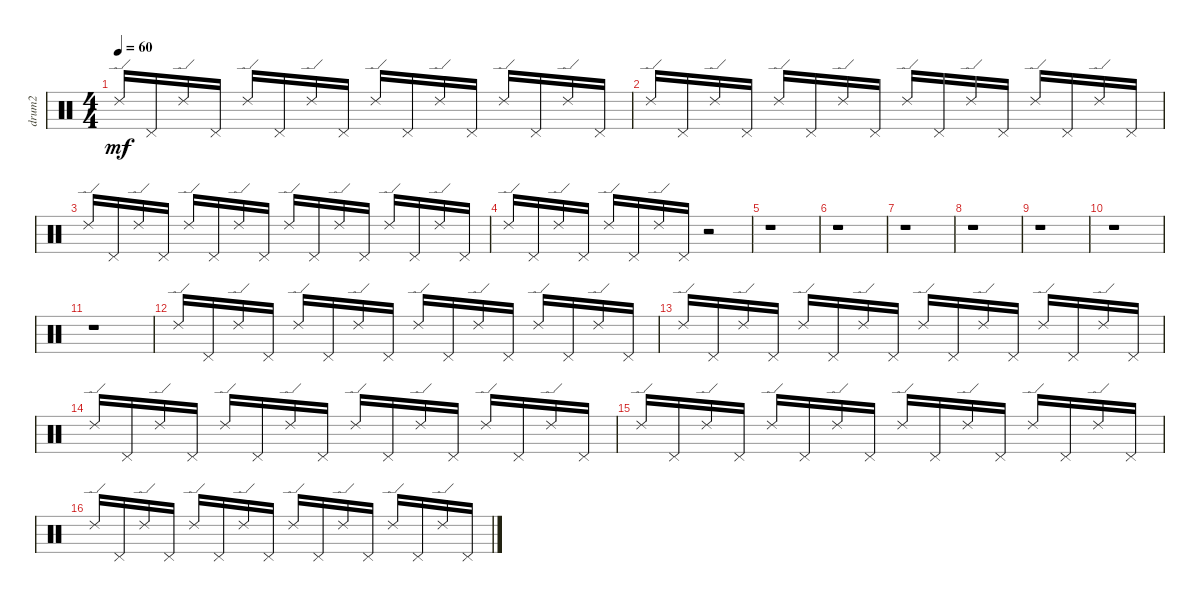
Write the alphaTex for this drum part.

\track ("drum2" "drum2") {instrument percussion}
\staff {score}
\articulation defaults
\ts (4 4)
\tempo 60
\clef neutral
\ks c "Ride (edge) 2".16{dy mf} "Pedal Hi-Hat (hit)".16 "Ride (edge) 2".16 "Pedal Hi-Hat (hit)".16 "Ride (edge) 2".16 "Pedal Hi-Hat (hit)".16 "Ride (edge) 2".16 "Pedal Hi-Hat (hit)".16 "Ride (edge) 2".16 "Pedal Hi-Hat (hit)".16 "Ride (edge) 2".16 "Pedal Hi-Hat (hit)".16 "Ride (edge) 2".16 "Pedal Hi-Hat (hit)".16 "Ride (edge) 2".16 "Pedal Hi-Hat (hit)".16
|
"Ride (edge) 2".16 "Pedal Hi-Hat (hit)".16 "Ride (edge) 2".16 "Pedal Hi-Hat (hit)".16 "Ride (edge) 2".16 "Pedal Hi-Hat (hit)".16 "Ride (edge) 2".16 "Pedal Hi-Hat (hit)".16 "Ride (edge) 2".16 "Pedal Hi-Hat (hit)".16 "Ride (edge) 2".16 "Pedal Hi-Hat (hit)".16 "Ride (edge) 2".16 "Pedal Hi-Hat (hit)".16 "Ride (edge) 2".16 "Pedal Hi-Hat (hit)".16 |
"Ride (edge) 2".16 "Pedal Hi-Hat (hit)".16 "Ride (edge) 2".16 "Pedal Hi-Hat (hit)".16 "Ride (edge) 2".16 "Pedal Hi-Hat (hit)".16 "Ride (edge) 2".16 "Pedal Hi-Hat (hit)".16 "Ride (edge) 2".16 "Pedal Hi-Hat (hit)".16 "Ride (edge) 2".16 "Pedal Hi-Hat (hit)".16 "Ride (edge) 2".16 "Pedal Hi-Hat (hit)".16 "Ride (edge) 2".16 "Pedal Hi-Hat (hit)".16 |
"Ride (edge) 2".16 "Pedal Hi-Hat (hit)".16 "Ride (edge) 2".16 "Pedal Hi-Hat (hit)".16 "Ride (edge) 2".16 "Pedal Hi-Hat (hit)".16 "Ride (edge) 2".16 "Pedal Hi-Hat (hit)".16 r.2 |
r.1 |
r.1 |
r.1 |
r.1 |
r.1 |
r.1 |
r.1 |
"Ride (edge) 2".16 "Pedal Hi-Hat (hit)".16 "Ride (edge) 2".16 "Pedal Hi-Hat (hit)".16 "Ride (edge) 2".16 "Pedal Hi-Hat (hit)".16 "Ride (edge) 2".16 "Pedal Hi-Hat (hit)".16 "Ride (edge) 2".16 "Pedal Hi-Hat (hit)".16 "Ride (edge) 2".16 "Pedal Hi-Hat (hit)".16 "Ride (edge) 2".16 "Pedal Hi-Hat (hit)".16 "Ride (edge) 2".16 "Pedal Hi-Hat (hit)".16 |
"Ride (edge) 2".16 "Pedal Hi-Hat (hit)".16 "Ride (edge) 2".16 "Pedal Hi-Hat (hit)".16 "Ride (edge) 2".16 "Pedal Hi-Hat (hit)".16 "Ride (edge) 2".16 "Pedal Hi-Hat (hit)".16 "Ride (edge) 2".16 "Pedal Hi-Hat (hit)".16 "Ride (edge) 2".16 "Pedal Hi-Hat (hit)".16 "Ride (edge) 2".16 "Pedal Hi-Hat (hit)".16 "Ride (edge) 2".16 "Pedal Hi-Hat (hit)".16 |
"Ride (edge) 2".16 "Pedal Hi-Hat (hit)".16 "Ride (edge) 2".16 "Pedal Hi-Hat (hit)".16 "Ride (edge) 2".16 "Pedal Hi-Hat (hit)".16 "Ride (edge) 2".16 "Pedal Hi-Hat (hit)".16 "Ride (edge) 2".16 "Pedal Hi-Hat (hit)".16 "Ride (edge) 2".16 "Pedal Hi-Hat (hit)".16 "Ride (edge) 2".16 "Pedal Hi-Hat (hit)".16 "Ride (edge) 2".16 "Pedal Hi-Hat (hit)".16 |
"Ride (edge) 2".16 "Pedal Hi-Hat (hit)".16 "Ride (edge) 2".16 "Pedal Hi-Hat (hit)".16 "Ride (edge) 2".16 "Pedal Hi-Hat (hit)".16 "Ride (edge) 2".16 "Pedal Hi-Hat (hit)".16 "Ride (edge) 2".16 "Pedal Hi-Hat (hit)".16 "Ride (edge) 2".16 "Pedal Hi-Hat (hit)".16 "Ride (edge) 2".16 "Pedal Hi-Hat (hit)".16 "Ride (edge) 2".16 "Pedal Hi-Hat (hit)".16 |
"Ride (edge) 2".16 "Pedal Hi-Hat (hit)".16 "Ride (edge) 2".16 "Pedal Hi-Hat (hit)".16 "Ride (edge) 2".16 "Pedal Hi-Hat (hit)".16 "Ride (edge) 2".16 "Pedal Hi-Hat (hit)".16 "Ride (edge) 2".16 "Pedal Hi-Hat (hit)".16 "Ride (edge) 2".16 "Pedal Hi-Hat (hit)".16 "Ride (edge) 2".16 "Pedal Hi-Hat (hit)".16 "Ride (edge) 2".16 "Pedal Hi-Hat (hit)".16
